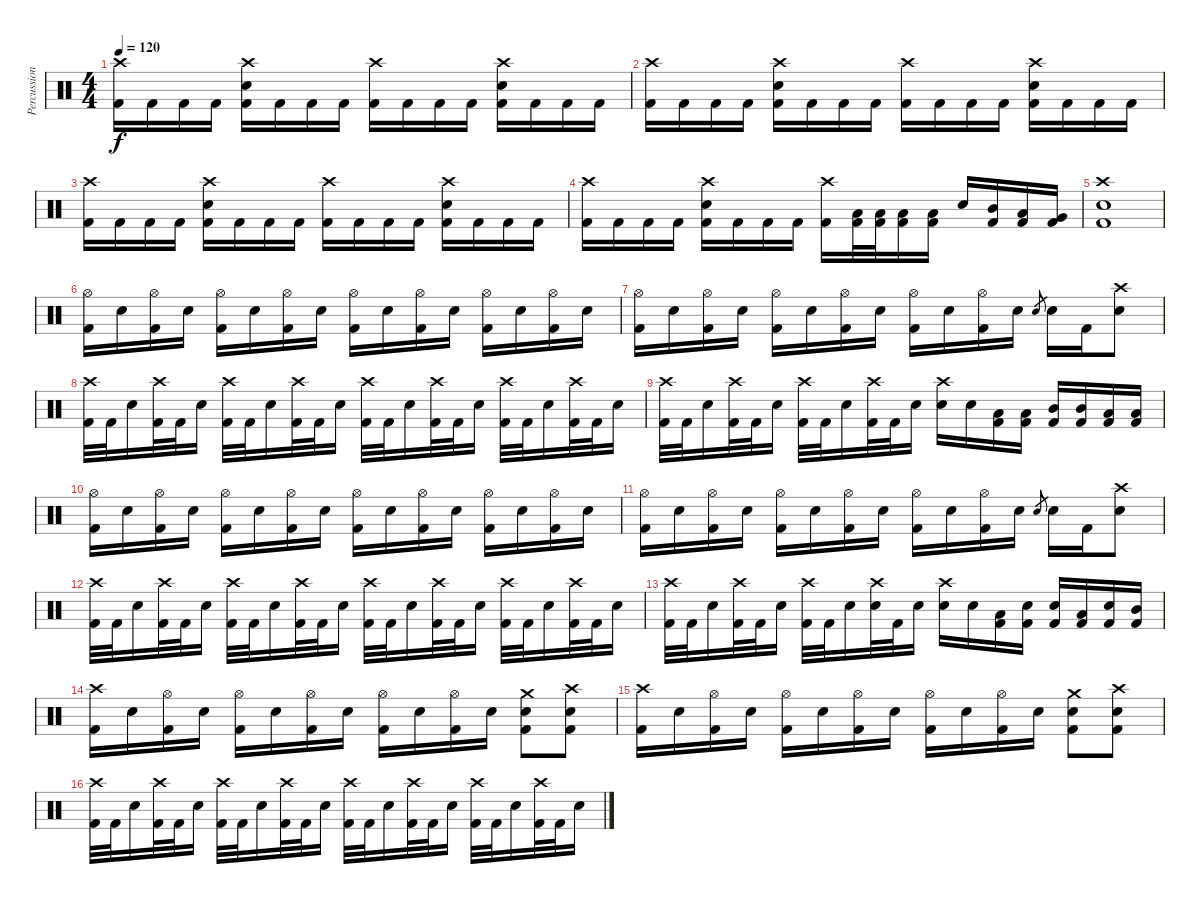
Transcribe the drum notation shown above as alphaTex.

\track ("Percussion" "Percussion") {instrument percussion}
\staff {score}
\articulation defaults
\ts (4 4)
\tempo 120
\clef neutral
\ks c
("Crash high (hit)" "Kick (hit) 2").16{dy f} "Kick (hit) 2".16 "Kick (hit) 2".16 "Kick (hit) 2".16 ("Crash high (hit)" "Electric Snare (hit)" "Kick (hit) 2").16 "Kick (hit) 2".16 "Kick (hit) 2".16 "Kick (hit) 2".16 ("Crash high (hit)" "Kick (hit) 2").16 "Kick (hit) 2".16 "Kick (hit) 2".16 "Kick (hit) 2".16 ("Crash high (hit)" "Electric Snare (hit)" "Kick (hit) 2").16 "Kick (hit) 2".16 "Kick (hit) 2".16 "Kick (hit) 2".16 |
("Crash high (hit)" "Kick (hit) 2").16 "Kick (hit) 2".16 "Kick (hit) 2".16 "Kick (hit) 2".16 ("Crash high (hit)" "Electric Snare (hit)" "Kick (hit) 2").16 "Kick (hit) 2".16 "Kick (hit) 2".16 "Kick (hit) 2".16 ("Crash high (hit)" "Kick (hit) 2").16 "Kick (hit) 2".16 "Kick (hit) 2".16 "Kick (hit) 2".16 ("Crash high (hit)" "Electric Snare (hit)" "Kick (hit) 2").16 "Kick (hit) 2".16 "Kick (hit) 2".16 "Kick (hit) 2".16 |
("Crash high (hit)" "Kick (hit) 2").16 "Kick (hit) 2".16 "Kick (hit) 2".16 "Kick (hit) 2".16 ("Crash high (hit)" "Electric Snare (hit)" "Kick (hit) 2").16 "Kick (hit) 2".16 "Kick (hit) 2".16 "Kick (hit) 2".16 ("Crash high (hit)" "Kick (hit) 2").16 "Kick (hit) 2".16 "Kick (hit) 2".16 "Kick (hit) 2".16 ("Crash high (hit)" "Electric Snare (hit)" "Kick (hit) 2").16 "Kick (hit) 2".16 "Kick (hit) 2".16 "Kick (hit) 2".16 |
("Crash high (hit)" "Kick (hit) 2").16 "Kick (hit) 2".16 "Kick (hit) 2".16 "Kick (hit) 2".16 ("Crash high (hit)" "Electric Snare (hit)" "Kick (hit) 2").16 "Kick (hit) 2".16 "Kick (hit) 2".16 "Kick (hit) 2".16 ("Crash high (hit)" "Kick (hit) 2").16 ("Low Tom (hit)" "Kick (hit) 2").32 ("Low Tom (hit)" "Kick (hit) 2").32 ("Low Tom (hit)" "Kick (hit) 2").16 ("Low Tom (hit)" "Kick (hit) 2").16 "Electric Snare (hit)".16 ("Mid Tom (hit)" "Kick (hit) 2").16 ("Low Tom (hit)" "Kick (hit) 2").16 ("Very Low Tom (hit)" "Kick (hit) 2").16 |
("Crash high (hit)" "Electric Snare (hit)" "Kick (hit) 2").1 |
("Hi-Hat (open)" "Kick (hit) 2").16 "Electric Snare (hit)".16 ("Hi-Hat (open)" "Kick (hit) 2").16 "Electric Snare (hit)".16 ("Hi-Hat (open)" "Kick (hit) 2").16 "Electric Snare (hit)".16 ("Hi-Hat (open)" "Kick (hit) 2").16 "Electric Snare (hit)".16 ("Hi-Hat (open)" "Kick (hit) 2").16 "Electric Snare (hit)".16 ("Hi-Hat (open)" "Kick (hit) 2").16 "Electric Snare (hit)".16 ("Hi-Hat (open)" "Kick (hit) 2").16 "Electric Snare (hit)".16 ("Hi-Hat (open)" "Kick (hit) 2").16 "Electric Snare (hit)".16 |
("Hi-Hat (open)" "Kick (hit) 2").16 "Electric Snare (hit)".16 ("Hi-Hat (open)" "Kick (hit) 2").16 "Electric Snare (hit)".16 ("Hi-Hat (open)" "Kick (hit) 2").16 "Electric Snare (hit)".16 ("Hi-Hat (open)" "Kick (hit) 2").16 "Electric Snare (hit)".16 ("Hi-Hat (open)" "Kick (hit) 2").16 "Electric Snare (hit)".16 ("Hi-Hat (open)" "Kick (hit) 2").16 "Electric Snare (hit)".16 "Electric Snare (hit)".8{gr} "Electric Snare (hit)".16 "Kick (hit) 2".16 ("Crash high (hit)" "Electric Snare (hit)").8 |
("Crash high (hit)" "Kick (hit) 2").32 "Kick (hit) 2".32 "Electric Snare (hit)".16 ("Crash high (hit)" "Kick (hit) 2").32 "Kick (hit) 2".32 "Electric Snare (hit)".16 ("Crash high (hit)" "Kick (hit) 2").32 "Kick (hit) 2".32 "Electric Snare (hit)".16 ("Crash high (hit)" "Kick (hit) 2").32 "Kick (hit) 2".32 "Electric Snare (hit)".16 ("Crash high (hit)" "Kick (hit) 2").32 "Kick (hit) 2".32 "Electric Snare (hit)".16 ("Crash high (hit)" "Kick (hit) 2").32 "Kick (hit) 2".32 "Electric Snare (hit)".16 ("Crash high (hit)" "Kick (hit) 2").32 "Kick (hit) 2".32 "Electric Snare (hit)".16 ("Crash high (hit)" "Kick (hit) 2").32 "Kick (hit) 2".32 "Electric Snare (hit)".16 |
("Crash high (hit)" "Kick (hit) 2").32 "Kick (hit) 2".32 "Electric Snare (hit)".16 ("Crash high (hit)" "Kick (hit) 2").32 "Kick (hit) 2".32 "Electric Snare (hit)".16 ("Crash high (hit)" "Kick (hit) 2").32 "Kick (hit) 2".32 "Electric Snare (hit)".16 ("Crash high (hit)" "Kick (hit) 2").32 "Kick (hit) 2".32 "Electric Snare (hit)".16 ("Crash high (hit)" "Electric Snare (hit)").16 "Electric Snare (hit)".16 ("Low Tom (hit)" "Kick (hit) 2").16 ("Low Tom (hit)" "Kick (hit) 2").16 ("Mid Tom (hit)" "Kick (hit) 2").16 ("Mid Tom (hit)" "Kick (hit) 2").16 ("Low Tom (hit)" "Kick (hit) 2").16 ("Low Tom (hit)" "Kick (hit) 2").16 |
("Hi-Hat (open)" "Kick (hit) 2").16 "Electric Snare (hit)".16 ("Hi-Hat (open)" "Kick (hit) 2").16 "Electric Snare (hit)".16 ("Hi-Hat (open)" "Kick (hit) 2").16 "Electric Snare (hit)".16 ("Hi-Hat (open)" "Kick (hit) 2").16 "Electric Snare (hit)".16 ("Hi-Hat (open)" "Kick (hit) 2").16 "Electric Snare (hit)".16 ("Hi-Hat (open)" "Kick (hit) 2").16 "Electric Snare (hit)".16 ("Hi-Hat (open)" "Kick (hit) 2").16 "Electric Snare (hit)".16 ("Hi-Hat (open)" "Kick (hit) 2").16 "Electric Snare (hit)".16 |
("Hi-Hat (open)" "Kick (hit) 2").16 "Electric Snare (hit)".16 ("Hi-Hat (open)" "Kick (hit) 2").16 "Electric Snare (hit)".16 ("Hi-Hat (open)" "Kick (hit) 2").16 "Electric Snare (hit)".16 ("Hi-Hat (open)" "Kick (hit) 2").16 "Electric Snare (hit)".16 ("Hi-Hat (open)" "Kick (hit) 2").16 "Electric Snare (hit)".16 ("Hi-Hat (open)" "Kick (hit) 2").16 "Electric Snare (hit)".16 "Electric Snare (hit)".8{gr} "Electric Snare (hit)".16 "Kick (hit) 2".16 ("Crash high (hit)" "Electric Snare (hit)").8 |
("Crash high (hit)" "Kick (hit) 2").32 "Kick (hit) 2".32 "Electric Snare (hit)".16 ("Crash high (hit)" "Kick (hit) 2").32 "Kick (hit) 2".32 "Electric Snare (hit)".16 ("Crash high (hit)" "Kick (hit) 2").32 "Kick (hit) 2".32 "Electric Snare (hit)".16 ("Crash high (hit)" "Kick (hit) 2").32 "Kick (hit) 2".32 "Electric Snare (hit)".16 ("Crash high (hit)" "Kick (hit) 2").32 "Kick (hit) 2".32 "Electric Snare (hit)".16 ("Crash high (hit)" "Kick (hit) 2").32 "Kick (hit) 2".32 "Electric Snare (hit)".16 ("Crash high (hit)" "Kick (hit) 2").32 "Kick (hit) 2".32 "Electric Snare (hit)".16 ("Crash high (hit)" "Kick (hit) 2").32 "Kick (hit) 2".32 "Electric Snare (hit)".16 |
("Crash high (hit)" "Kick (hit) 2").32 "Kick (hit) 2".32 "Electric Snare (hit)".16 ("Crash high (hit)" "Kick (hit) 2").32 "Kick (hit) 2".32 "Electric Snare (hit)".16 ("Crash high (hit)" "Kick (hit) 2").32 "Kick (hit) 2".32 "Electric Snare (hit)".16 ("Crash high (hit)" "Electric Snare (hit)").32 "Kick (hit) 2".32 "Electric Snare (hit)".16 ("Crash high (hit)" "Electric Snare (hit)").16 "Electric Snare (hit)".16 ("Low Tom (hit)" "Kick (hit) 2").16 ("Electric Snare (hit)" "Kick (hit) 2").16 ("Electric Snare (hit)" "Kick (hit) 2").16 ("Low Tom (hit)" "Kick (hit) 2").16 ("Electric Snare (hit)" "Kick (hit) 2").16 ("Mid Tom (hit)" "Kick (hit) 2").16 |
("Crash high (hit)" "Kick (hit) 2").16 "Electric Snare (hit)".16 ("Hi-Hat (open)" "Kick (hit) 2").16 "Electric Snare (hit)".16 ("Hi-Hat (open)" "Kick (hit) 2").16 "Electric Snare (hit)".16 ("Hi-Hat (open)" "Kick (hit) 2").16 "Electric Snare (hit)".16 ("Hi-Hat (open)" "Kick (hit) 2").16 "Electric Snare (hit)".16 ("Hi-Hat (open)" "Kick (hit) 2").16 "Electric Snare (hit)".16 ("Crash medium (hit)" "Kick (hit) 2" "Electric Snare (hit)").8 ("Crash high (hit)" "Kick (hit) 2" "Electric Snare (hit)").8 |
("Crash high (hit)" "Kick (hit) 2").16 "Electric Snare (hit)".16 ("Hi-Hat (open)" "Kick (hit) 2").16 "Electric Snare (hit)".16 ("Hi-Hat (open)" "Kick (hit) 2").16 "Electric Snare (hit)".16 ("Hi-Hat (open)" "Kick (hit) 2").16 "Electric Snare (hit)".16 ("Hi-Hat (open)" "Kick (hit) 2").16 "Electric Snare (hit)".16 ("Hi-Hat (open)" "Kick (hit) 2").16 "Electric Snare (hit)".16 ("Crash medium (hit)" "Kick (hit) 2" "Electric Snare (hit)").8 ("Crash high (hit)" "Kick (hit) 2" "Electric Snare (hit)").8 |
("Crash high (hit)" "Kick (hit) 2").32 "Kick (hit) 2".32 "Electric Snare (hit)".16 ("Crash high (hit)" "Kick (hit) 2").32 "Kick (hit) 2".32 "Electric Snare (hit)".16 ("Crash high (hit)" "Kick (hit) 2").32 "Kick (hit) 2".32 "Electric Snare (hit)".16 ("Crash high (hit)" "Kick (hit) 2").32 "Kick (hit) 2".32 "Electric Snare (hit)".16 ("Crash high (hit)" "Kick (hit) 2").32 "Kick (hit) 2".32 "Electric Snare (hit)".16 ("Crash high (hit)" "Kick (hit) 2").32 "Kick (hit) 2".32 "Electric Snare (hit)".16 ("Crash high (hit)" "Kick (hit) 2").32 "Kick (hit) 2".32 "Electric Snare (hit)".16 ("Crash high (hit)" "Kick (hit) 2").32 "Kick (hit) 2".32 "Electric Snare (hit)".16
